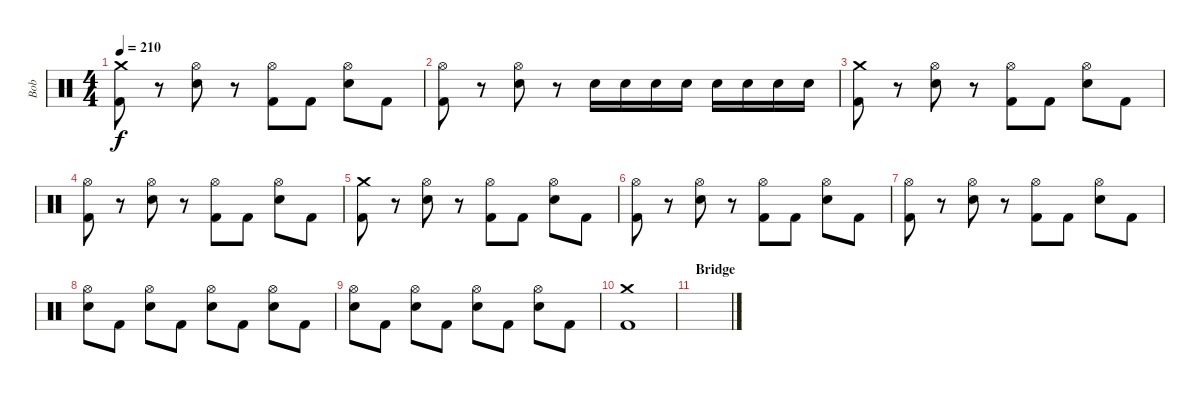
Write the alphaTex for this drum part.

\track ("Bob" "Bob") {instrument percussion}
\staff {score}
\articulation defaults
\ts (4 4)
\tempo 210
\clef neutral
\ks c
("Crash medium (hit)" "Kick (hit) 2").8{dy f} r.8 ("Hi-Hat (open)" "Electric Snare (hit)").8 r.8 ("Hi-Hat (open)" "Kick (hit) 2").8 "Kick (hit) 2".8 ("Hi-Hat (open)" "Electric Snare (hit)").8 "Kick (hit) 2".8 |
("Hi-Hat (open)" "Kick (hit) 2").8 r.8 ("Hi-Hat (open)" "Electric Snare (hit)").8 r.8 "Electric Snare (hit)".16 "Electric Snare (hit)".16 "Electric Snare (hit)".16 "Electric Snare (hit)".16 "Electric Snare (hit)".16 "Electric Snare (hit)".16 "Electric Snare (hit)".16 "Electric Snare (hit)".16 |
("Crash medium (hit)" "Kick (hit) 2").8 r.8 ("Hi-Hat (open)" "Electric Snare (hit)").8 r.8 ("Hi-Hat (open)" "Kick (hit) 2").8 "Kick (hit) 2".8 ("Hi-Hat (open)" "Electric Snare (hit)").8 "Kick (hit) 2".8 |
("Hi-Hat (open)" "Kick (hit) 2").8 r.8 ("Hi-Hat (open)" "Electric Snare (hit)").8 r.8 ("Hi-Hat (open)" "Kick (hit) 2").8 "Kick (hit) 2".8 ("Hi-Hat (open)" "Electric Snare (hit)").8 "Kick (hit) 2".8 |
("Crash medium (hit)" "Kick (hit) 2").8 r.8 ("Hi-Hat (open)" "Electric Snare (hit)").8 r.8 ("Hi-Hat (open)" "Kick (hit) 2").8 "Kick (hit) 2".8 ("Hi-Hat (open)" "Electric Snare (hit)").8 "Kick (hit) 2".8 |
("Hi-Hat (open)" "Kick (hit) 2").8 r.8 ("Hi-Hat (open)" "Electric Snare (hit)").8 r.8 ("Hi-Hat (open)" "Kick (hit) 2").8 "Kick (hit) 2".8 ("Hi-Hat (open)" "Electric Snare (hit)").8 "Kick (hit) 2".8 |
("Hi-Hat (open)" "Kick (hit) 2").8 r.8 ("Hi-Hat (open)" "Electric Snare (hit)").8 r.8 ("Hi-Hat (open)" "Kick (hit) 2").8 "Kick (hit) 2".8 ("Hi-Hat (open)" "Electric Snare (hit)").8 "Kick (hit) 2".8 |
("Hi-Hat (open)" "Electric Snare (hit)").8 "Kick (hit) 2".8 ("Hi-Hat (open)" "Electric Snare (hit)").8 "Kick (hit) 2".8 ("Hi-Hat (open)" "Electric Snare (hit)").8 "Kick (hit) 2".8 ("Hi-Hat (open)" "Electric Snare (hit)").8 "Kick (hit) 2".8 |
("Hi-Hat (open)" "Electric Snare (hit)").8 "Kick (hit) 2".8 ("Hi-Hat (open)" "Electric Snare (hit)").8 "Kick (hit) 2".8 ("Hi-Hat (open)" "Electric Snare (hit)").8 "Kick (hit) 2".8 ("Hi-Hat (open)" "Electric Snare (hit)").8 "Kick (hit) 2".8 |
("Crash medium (hit)" "Kick (hit) 2").1 |
\section ("" "Bridge")
